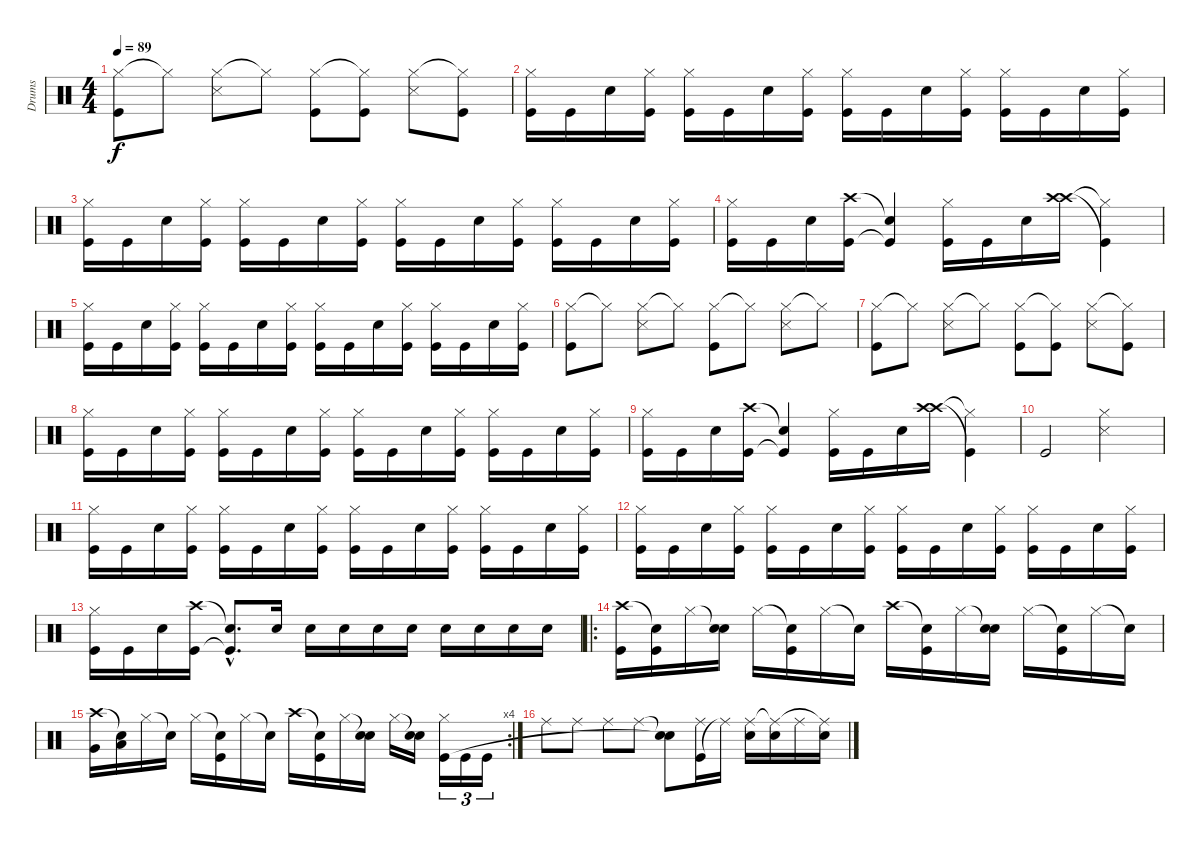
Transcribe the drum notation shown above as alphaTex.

\track ("Drums" "Drums") {instrument percussion}
\staff {score}
\articulation defaults
\ts (4 4)
\tempo 89
\clef neutral
\ks c
("Hi-Hat (closed)" "Kick (hit)").8{dy f} "Hi-Hat (closed)"{t}.8 ("Hi-Hat (closed)" "Snare (side stick) 3").8 "Hi-Hat (closed)"{t}.8 ("Hi-Hat (closed)" "Kick (hit)").8 ("Hi-Hat (closed)"{t} "Kick (hit)").8 ("Hi-Hat (closed)" "Snare (side stick) 3").8 ("Hi-Hat (closed)"{t} "Kick (hit)").8 |
("Hi-Hat (closed)" "Kick (hit)").16 "Kick (hit)".16 "Snare (hit) 2".16 ("Hi-Hat (closed)" "Kick (hit)").16 ("Hi-Hat (closed)" "Kick (hit)").16 "Kick (hit)".16 "Snare (hit) 2".16 ("Hi-Hat (closed)" "Kick (hit)").16 ("Hi-Hat (closed)" "Kick (hit)").16 "Kick (hit)".16 "Snare (hit) 2".16 ("Hi-Hat (closed)" "Kick (hit)").16 ("Hi-Hat (closed)" "Kick (hit)").16 "Kick (hit)".16 "Snare (hit) 2".16 ("Hi-Hat (closed)" "Kick (hit)").16 |
("Hi-Hat (closed)" "Kick (hit)").16 "Kick (hit)".16 "Snare (hit) 2".16 ("Hi-Hat (closed)" "Kick (hit)").16 ("Hi-Hat (closed)" "Kick (hit)").16 "Kick (hit)".16 "Snare (hit) 2".16 ("Hi-Hat (closed)" "Kick (hit)").16 ("Hi-Hat (closed)" "Kick (hit)").16 "Kick (hit)".16 "Snare (hit) 2".16 ("Hi-Hat (closed)" "Kick (hit)").16 ("Hi-Hat (closed)" "Kick (hit)").16 "Kick (hit)".16 "Snare (hit) 2".16 ("Hi-Hat (closed)" "Kick (hit)").16 |
("Hi-Hat (closed)" "Kick (hit)").16 "Kick (hit)".16 "Snare (hit) 2".16 ("Crash high (hit)" "Kick (hit)").16 ("Snare (hit)"{t} "Kick (hit)"{t}).4 ("Hi-Hat (closed)" "Kick (hit)").16 "Kick (hit)".16 "Snare (hit) 2".16 ("Crash high (hit)" "Crash high (hit)").16 ("Hi-Hat (closed)"{t} "Kick (hit)"{t}).4 |
("Hi-Hat (closed)" "Kick (hit)").16 "Kick (hit)".16 "Snare (hit) 2".16 ("Hi-Hat (closed)" "Kick (hit)").16 ("Hi-Hat (closed)" "Kick (hit)").16 "Kick (hit)".16 "Snare (hit) 2".16 ("Hi-Hat (closed)" "Kick (hit)").16 ("Hi-Hat (closed)" "Kick (hit)").16 "Kick (hit)".16 "Snare (hit) 2".16 ("Hi-Hat (closed)" "Kick (hit)").16 ("Hi-Hat (closed)" "Kick (hit)").16 "Kick (hit)".16 "Snare (hit) 2".16 ("Hi-Hat (closed)" "Kick (hit)").16 |
("Hi-Hat (closed)" "Kick (hit)").8 "Hi-Hat (closed)"{t}.8 ("Hi-Hat (closed)" "Snare (side stick) 3").8 "Hi-Hat (closed)"{t}.8 ("Hi-Hat (closed)" "Kick (hit)").8 "Hi-Hat (closed)"{t}.8 ("Hi-Hat (closed)" "Snare (side stick) 3").8 "Hi-Hat (closed)"{t}.8 |
("Hi-Hat (closed)" "Kick (hit)").8 "Hi-Hat (closed)"{t}.8 ("Hi-Hat (closed)" "Snare (side stick) 3").8 "Hi-Hat (closed)"{t}.8 ("Hi-Hat (closed)" "Kick (hit)").8 ("Hi-Hat (closed)"{t} "Kick (hit)").8 ("Hi-Hat (closed)" "Snare (side stick) 3").8 ("Hi-Hat (closed)"{t} "Kick (hit)").8 |
("Hi-Hat (closed)" "Kick (hit)").16 "Kick (hit)".16 "Snare (hit) 2".16 ("Hi-Hat (closed)" "Kick (hit)").16 ("Hi-Hat (closed)" "Kick (hit)").16 "Kick (hit)".16 "Snare (hit) 2".16 ("Hi-Hat (closed)" "Kick (hit)").16 ("Hi-Hat (closed)" "Kick (hit)").16 "Kick (hit)".16 "Snare (hit) 2".16 ("Hi-Hat (closed)" "Kick (hit)").16 ("Hi-Hat (closed)" "Kick (hit)").16 "Kick (hit)".16 "Snare (hit) 2".16 ("Hi-Hat (closed)" "Kick (hit)").16 |
("Hi-Hat (closed)" "Kick (hit)").16 "Kick (hit)".16 "Snare (hit) 2".16 ("Crash high (hit)" "Kick (hit)").16 ("Snare (hit)"{t} "Kick (hit)"{t}).4 ("Hi-Hat (closed)" "Kick (hit)").16 "Kick (hit)".16 "Snare (hit) 2".16 ("Crash high (hit)" "Crash high (hit)").16 ("Hi-Hat (closed)"{t} "Kick (hit)"{t}).4 |
"Kick (hit)".2 ("Hi-Hat (closed)" "Snare (side stick) 3").2 |
("Hi-Hat (closed)" "Kick (hit)").16 "Kick (hit)".16 "Snare (hit) 2".16 ("Hi-Hat (closed)" "Kick (hit)").16 ("Hi-Hat (closed)" "Kick (hit)").16 "Kick (hit)".16 "Snare (hit) 2".16 ("Hi-Hat (closed)" "Kick (hit)").16 ("Hi-Hat (closed)" "Kick (hit)").16 "Kick (hit)".16 "Snare (hit) 2".16 ("Hi-Hat (closed)" "Kick (hit)").16 ("Hi-Hat (closed)" "Kick (hit)").16 "Kick (hit)".16 "Snare (hit) 2".16 ("Hi-Hat (closed)" "Kick (hit)").16 |
("Hi-Hat (closed)" "Kick (hit)").16 "Kick (hit)".16 "Snare (hit) 2".16 ("Hi-Hat (closed)" "Kick (hit)").16 ("Hi-Hat (closed)" "Kick (hit)").16 "Kick (hit)".16 "Snare (hit) 2".16 ("Hi-Hat (closed)" "Kick (hit)").16 ("Hi-Hat (closed)" "Kick (hit)").16 "Kick (hit)".16 "Snare (hit) 2".16 ("Hi-Hat (closed)" "Kick (hit)").16 ("Hi-Hat (closed)" "Kick (hit)").16 "Kick (hit)".16 "Snare (hit) 2".16 ("Hi-Hat (closed)" "Kick (hit)").16 |
("Hi-Hat (closed)" "Kick (hit)").16 "Kick (hit)".16 "Snare (hit) 2".16 ("Crash high (hit)" "Kick (hit)").16 ("Snare (hit)"{hac t} "Kick (hit)"{hac t}).8{d} "Snare (hit) 2".16 "Snare (hit) 2".16 "Snare (hit) 2".16 "Snare (hit) 2".16 "Snare (hit) 2".16 "Snare (hit) 2".16 "Snare (hit) 2".16 "Snare (hit) 2".16 "Snare (hit) 2".16 |
\ro
("Crash high (hit)" "Kick (hit)").16 ("Snare (hit)"{t} "Kick (hit)").16 "Hi-Hat (closed)".16 ("Snare (hit)"{t} "Snare (hit) 2").16 "Hi-Hat (closed)".16 ("Snare (hit)"{t} "Kick (hit)").16 "Hi-Hat (closed)".16 "Snare (hit)"{t}.16 "Crash high (hit)".16 ("Snare (hit)"{t} "Kick (hit)").16 "Hi-Hat (closed)".16 ("Snare (hit)"{t} "Snare (hit) 2").16 "Hi-Hat (closed)".16 ("Snare (hit)"{t} "Kick (hit)").16 "Hi-Hat (closed)".16 "Snare (hit)"{t}.16 |
\rc 4
("Crash high (hit)" "Very Low Tom (hit)").16 ("Snare (hit)"{t} "Low Floor Tom (hit)").16 "Hi-Hat (closed)".16 "Snare (hit)"{t}.16 "Hi-Hat (closed)".16 ("Snare (hit)"{t} "Kick (hit)").16 "Hi-Hat (closed)".16 "Snare (hit)"{t}.16 "Crash high (hit)".16 ("Snare (hit)"{t} "Kick (hit)").16 "Hi-Hat (closed)".16 ("Snare (hit)"{t} "Snare (hit) 2").16 "Hi-Hat (closed)".16 ("Snare (hit)"{t} "Snare (hit) 2").16 ("Hi-Hat (closed)" "Kick (hit)").16{tu (3 2)} "Kick (hit)".16{tu (3 2)} "Kick (hit)".16{tu (3 2)} |
"Ride (middle)".8 "Ride (middle)".8 "Ride (middle)".8 "Ride (middle)".8 ("Snare (hit)"{t} "Snare (hit)"{t}).8 ("Kick (hit)" "Ride (middle)").16 "Ride (middle)"{t}.16 ("Snare (hit) 2" "Ride (middle)").16 ("Snare (hit) 2" "Ride (middle)"{t}).16 "Ride (middle)".16 ("Snare (hit) 2" "Ride (middle)"{t}).16
